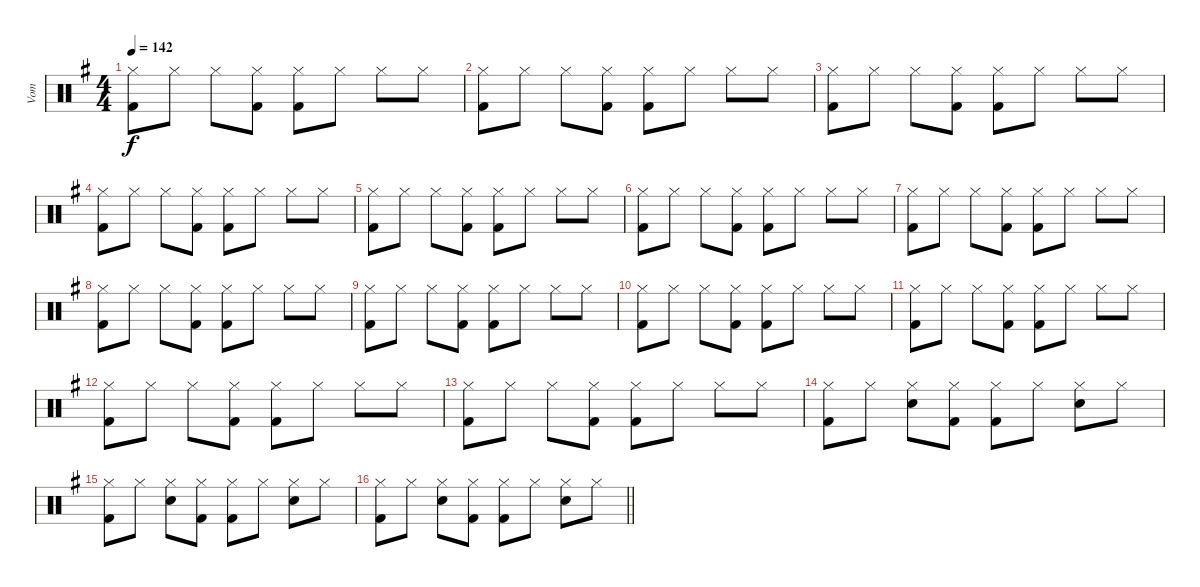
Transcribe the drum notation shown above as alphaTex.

\track ("Vom" "Vom") {instrument percussion}
\staff {score}
\articulation defaults
\ts (4 4)
\tempo 142
\clef neutral
\ks g
("Hi-Hat (closed)" "Kick (hit) 2").8{dy f} "Hi-Hat (closed)".8 "Hi-Hat (closed)".8 ("Hi-Hat (closed)" "Kick (hit) 2").8 ("Hi-Hat (closed)" "Kick (hit) 2").8 "Hi-Hat (closed)".8 "Hi-Hat (closed)".8 "Hi-Hat (closed)".8 |
("Hi-Hat (closed)" "Kick (hit) 2").8 "Hi-Hat (closed)".8 "Hi-Hat (closed)".8 ("Hi-Hat (closed)" "Kick (hit) 2").8 ("Hi-Hat (closed)" "Kick (hit) 2").8 "Hi-Hat (closed)".8 "Hi-Hat (closed)".8 "Hi-Hat (closed)".8 |
("Hi-Hat (closed)" "Kick (hit) 2").8 "Hi-Hat (closed)".8 "Hi-Hat (closed)".8 ("Hi-Hat (closed)" "Kick (hit) 2").8 ("Hi-Hat (closed)" "Kick (hit) 2").8 "Hi-Hat (closed)".8 "Hi-Hat (closed)".8 "Hi-Hat (closed)".8 |
("Hi-Hat (closed)" "Kick (hit) 2").8 "Hi-Hat (closed)".8 "Hi-Hat (closed)".8 ("Hi-Hat (closed)" "Kick (hit) 2").8 ("Hi-Hat (closed)" "Kick (hit) 2").8 "Hi-Hat (closed)".8 "Hi-Hat (closed)".8 "Hi-Hat (closed)".8 |
("Hi-Hat (closed)" "Kick (hit) 2").8 "Hi-Hat (closed)".8 "Hi-Hat (closed)".8 ("Hi-Hat (closed)" "Kick (hit) 2").8 ("Hi-Hat (closed)" "Kick (hit) 2").8 "Hi-Hat (closed)".8 "Hi-Hat (closed)".8 "Hi-Hat (closed)".8 |
("Hi-Hat (closed)" "Kick (hit) 2").8 "Hi-Hat (closed)".8 "Hi-Hat (closed)".8 ("Hi-Hat (closed)" "Kick (hit) 2").8 ("Hi-Hat (closed)" "Kick (hit) 2").8 "Hi-Hat (closed)".8 "Hi-Hat (closed)".8 "Hi-Hat (closed)".8 |
("Hi-Hat (closed)" "Kick (hit) 2").8 "Hi-Hat (closed)".8 "Hi-Hat (closed)".8 ("Hi-Hat (closed)" "Kick (hit) 2").8 ("Hi-Hat (closed)" "Kick (hit) 2").8 "Hi-Hat (closed)".8 "Hi-Hat (closed)".8 "Hi-Hat (closed)".8 |
("Hi-Hat (closed)" "Kick (hit) 2").8 "Hi-Hat (closed)".8 "Hi-Hat (closed)".8 ("Hi-Hat (closed)" "Kick (hit) 2").8 ("Hi-Hat (closed)" "Kick (hit) 2").8 "Hi-Hat (closed)".8 "Hi-Hat (closed)".8 "Hi-Hat (closed)".8 |
("Hi-Hat (closed)" "Kick (hit) 2").8 "Hi-Hat (closed)".8 "Hi-Hat (closed)".8 ("Hi-Hat (closed)" "Kick (hit) 2").8 ("Hi-Hat (closed)" "Kick (hit) 2").8 "Hi-Hat (closed)".8 "Hi-Hat (closed)".8 "Hi-Hat (closed)".8 |
("Hi-Hat (closed)" "Kick (hit) 2").8 "Hi-Hat (closed)".8 "Hi-Hat (closed)".8 ("Hi-Hat (closed)" "Kick (hit) 2").8 ("Hi-Hat (closed)" "Kick (hit) 2").8 "Hi-Hat (closed)".8 "Hi-Hat (closed)".8 "Hi-Hat (closed)".8 |
("Hi-Hat (closed)" "Kick (hit) 2").8 "Hi-Hat (closed)".8 "Hi-Hat (closed)".8 ("Hi-Hat (closed)" "Kick (hit) 2").8 ("Hi-Hat (closed)" "Kick (hit) 2").8 "Hi-Hat (closed)".8 "Hi-Hat (closed)".8 "Hi-Hat (closed)".8 |
("Hi-Hat (closed)" "Kick (hit) 2").8 "Hi-Hat (closed)".8 "Hi-Hat (closed)".8 ("Hi-Hat (closed)" "Kick (hit) 2").8 ("Hi-Hat (closed)" "Kick (hit) 2").8 "Hi-Hat (closed)".8 "Hi-Hat (closed)".8 "Hi-Hat (closed)".8 |
("Hi-Hat (closed)" "Kick (hit) 2").8 "Hi-Hat (closed)".8 "Hi-Hat (closed)".8 ("Hi-Hat (closed)" "Kick (hit) 2").8 ("Hi-Hat (closed)" "Kick (hit) 2").8 "Hi-Hat (closed)".8 "Hi-Hat (closed)".8 "Hi-Hat (closed)".8 |
("Hi-Hat (closed)" "Kick (hit) 2").8 "Hi-Hat (closed)".8 ("Hi-Hat (closed)" "Snare (hit) 2").8 ("Hi-Hat (closed)" "Kick (hit) 2").8 ("Hi-Hat (closed)" "Kick (hit) 2").8 "Hi-Hat (closed)".8 ("Hi-Hat (closed)" "Snare (hit) 2").8 "Hi-Hat (closed)".8 |
("Hi-Hat (closed)" "Kick (hit) 2").8 "Hi-Hat (closed)".8 ("Hi-Hat (closed)" "Snare (hit) 2").8 ("Hi-Hat (closed)" "Kick (hit) 2").8 ("Hi-Hat (closed)" "Kick (hit) 2").8 "Hi-Hat (closed)".8 ("Hi-Hat (closed)" "Snare (hit) 2").8 "Hi-Hat (closed)".8 |
\barLineRight lightlight
("Hi-Hat (closed)" "Kick (hit) 2").8 "Hi-Hat (closed)".8 ("Hi-Hat (closed)" "Snare (hit) 2").8 ("Hi-Hat (closed)" "Kick (hit) 2").8 ("Hi-Hat (closed)" "Kick (hit) 2").8 "Hi-Hat (closed)".8 ("Hi-Hat (closed)" "Snare (hit) 2").8 "Hi-Hat (closed)".8
